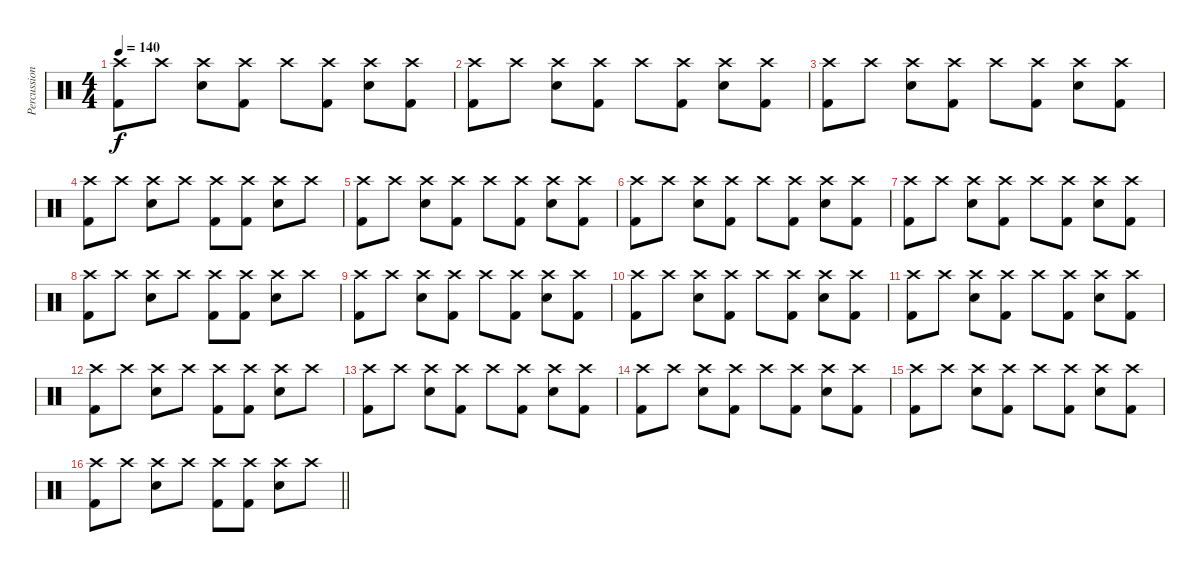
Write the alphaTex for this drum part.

\track ("Percussion" "Percussion") {instrument percussion}
\staff {score}
\articulation defaults
\ts (4 4)
\tempo 140
\clef neutral
\ks c
("Crash high (hit)" "Kick (hit) 2").8{dy f} "Crash high (hit)".8 ("Crash high (hit)" "Electric Snare (hit)").8 ("Crash high (hit)" "Kick (hit) 2").8 "Crash high (hit)".8 ("Crash high (hit)" "Kick (hit) 2").8 ("Crash high (hit)" "Electric Snare (hit)").8 ("Crash high (hit)" "Kick (hit) 2").8 |
("Crash high (hit)" "Kick (hit) 2").8 "Crash high (hit)".8 ("Crash high (hit)" "Electric Snare (hit)").8 ("Crash high (hit)" "Kick (hit) 2").8 "Crash high (hit)".8 ("Crash high (hit)" "Kick (hit) 2").8 ("Crash high (hit)" "Electric Snare (hit)").8 ("Crash high (hit)" "Kick (hit) 2").8 |
("Crash high (hit)" "Kick (hit) 2").8 "Crash high (hit)".8 ("Crash high (hit)" "Electric Snare (hit)").8 ("Crash high (hit)" "Kick (hit) 2").8 "Crash high (hit)".8 ("Crash high (hit)" "Kick (hit) 2").8 ("Crash high (hit)" "Electric Snare (hit)").8 ("Crash high (hit)" "Kick (hit) 2").8 |
("Crash high (hit)" "Kick (hit) 2").8 "Crash high (hit)".8 ("Crash high (hit)" "Electric Snare (hit)").8 "Crash high (hit)".8 ("Crash high (hit)" "Kick (hit) 2").8 ("Crash high (hit)" "Kick (hit) 2").8 ("Crash high (hit)" "Electric Snare (hit)").8 "Crash high (hit)".8 |
("Crash high (hit)" "Kick (hit) 2").8 "Crash high (hit)".8 ("Crash high (hit)" "Electric Snare (hit)").8 ("Crash high (hit)" "Kick (hit) 2").8 "Crash high (hit)".8 ("Crash high (hit)" "Kick (hit) 2").8 ("Crash high (hit)" "Electric Snare (hit)").8 ("Crash high (hit)" "Kick (hit) 2").8 |
("Crash high (hit)" "Kick (hit) 2").8 "Crash high (hit)".8 ("Crash high (hit)" "Electric Snare (hit)").8 ("Crash high (hit)" "Kick (hit) 2").8 "Crash high (hit)".8 ("Crash high (hit)" "Kick (hit) 2").8 ("Crash high (hit)" "Electric Snare (hit)").8 ("Crash high (hit)" "Kick (hit) 2").8 |
("Crash high (hit)" "Kick (hit) 2").8 "Crash high (hit)".8 ("Crash high (hit)" "Electric Snare (hit)").8 ("Crash high (hit)" "Kick (hit) 2").8 "Crash high (hit)".8 ("Crash high (hit)" "Kick (hit) 2").8 ("Crash high (hit)" "Electric Snare (hit)").8 ("Crash high (hit)" "Kick (hit) 2").8 |
("Crash high (hit)" "Kick (hit) 2").8 "Crash high (hit)".8 ("Crash high (hit)" "Electric Snare (hit)").8 "Crash high (hit)".8 ("Crash high (hit)" "Kick (hit) 2").8 ("Crash high (hit)" "Kick (hit) 2").8 ("Crash high (hit)" "Electric Snare (hit)").8 "Crash high (hit)".8 |
("Crash high (hit)" "Kick (hit) 2").8 "Crash high (hit)".8 ("Crash high (hit)" "Electric Snare (hit)").8 ("Crash high (hit)" "Kick (hit) 2").8 "Crash high (hit)".8 ("Crash high (hit)" "Kick (hit) 2").8 ("Crash high (hit)" "Electric Snare (hit)").8 ("Crash high (hit)" "Kick (hit) 2").8 |
("Crash high (hit)" "Kick (hit) 2").8 "Crash high (hit)".8 ("Crash high (hit)" "Electric Snare (hit)").8 ("Crash high (hit)" "Kick (hit) 2").8 "Crash high (hit)".8 ("Crash high (hit)" "Kick (hit) 2").8 ("Crash high (hit)" "Electric Snare (hit)").8 ("Crash high (hit)" "Kick (hit) 2").8 |
("Crash high (hit)" "Kick (hit) 2").8 "Crash high (hit)".8 ("Crash high (hit)" "Electric Snare (hit)").8 ("Crash high (hit)" "Kick (hit) 2").8 "Crash high (hit)".8 ("Crash high (hit)" "Kick (hit) 2").8 ("Crash high (hit)" "Electric Snare (hit)").8 ("Crash high (hit)" "Kick (hit) 2").8 |
("Crash high (hit)" "Kick (hit) 2").8 "Crash high (hit)".8 ("Crash high (hit)" "Electric Snare (hit)").8 "Crash high (hit)".8 ("Crash high (hit)" "Kick (hit) 2").8 ("Crash high (hit)" "Kick (hit) 2").8 ("Crash high (hit)" "Electric Snare (hit)").8 "Crash high (hit)".8 |
("Crash high (hit)" "Kick (hit) 2").8 "Crash high (hit)".8 ("Crash high (hit)" "Electric Snare (hit)").8 ("Crash high (hit)" "Kick (hit) 2").8 "Crash high (hit)".8 ("Crash high (hit)" "Kick (hit) 2").8 ("Crash high (hit)" "Electric Snare (hit)").8 ("Crash high (hit)" "Kick (hit) 2").8 |
("Crash high (hit)" "Kick (hit) 2").8 "Crash high (hit)".8 ("Crash high (hit)" "Electric Snare (hit)").8 ("Crash high (hit)" "Kick (hit) 2").8 "Crash high (hit)".8 ("Crash high (hit)" "Kick (hit) 2").8 ("Crash high (hit)" "Electric Snare (hit)").8 ("Crash high (hit)" "Kick (hit) 2").8 |
("Crash high (hit)" "Kick (hit) 2").8 "Crash high (hit)".8 ("Crash high (hit)" "Electric Snare (hit)").8 ("Crash high (hit)" "Kick (hit) 2").8 "Crash high (hit)".8 ("Crash high (hit)" "Kick (hit) 2").8 ("Crash high (hit)" "Electric Snare (hit)").8 ("Crash high (hit)" "Kick (hit) 2").8 |
\barLineRight lightlight
("Crash high (hit)" "Kick (hit) 2").8 "Crash high (hit)".8 ("Crash high (hit)" "Electric Snare (hit)").8 "Crash high (hit)".8 ("Crash high (hit)" "Kick (hit) 2").8 ("Crash high (hit)" "Kick (hit) 2").8 ("Crash high (hit)" "Electric Snare (hit)").8 "Crash high (hit)".8
